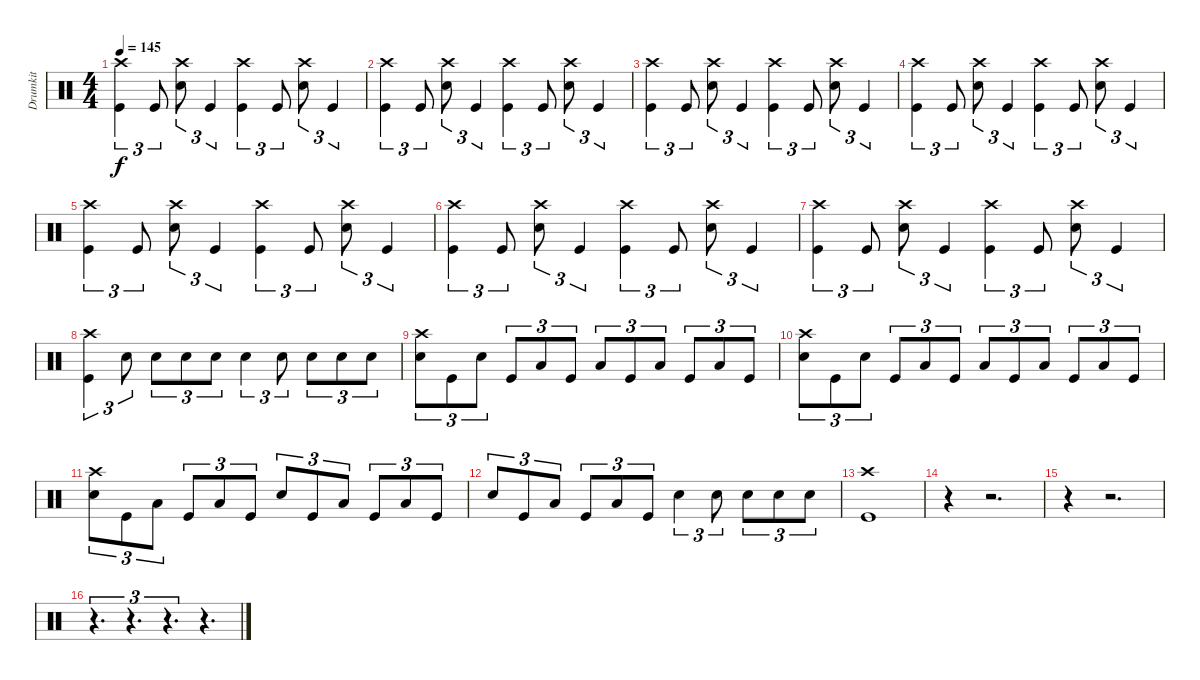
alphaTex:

\track ("Drumkit" "Drumkit") {instrument percussion}
\staff {score}
\articulation defaults
\ts (4 4)
\tempo 145
\clef neutral
\ks c
("Crash high (hit)" "Kick (hit)").4{tu (3 2) dy f} "Kick (hit)".8{tu (3 2)} ("Crash high (hit)" "Snare (hit) 2").8{tu (3 2)} "Kick (hit)".4{tu (3 2)} ("Crash high (hit)" "Kick (hit)").4{tu (3 2)} "Kick (hit)".8{tu (3 2)} ("Crash high (hit)" "Snare (hit) 2").8{tu (3 2)} "Kick (hit)".4{tu (3 2)} |
("Crash high (hit)" "Kick (hit)").4{tu (3 2)} "Kick (hit)".8{tu (3 2)} ("Crash high (hit)" "Snare (hit) 2").8{tu (3 2)} "Kick (hit)".4{tu (3 2)} ("Crash high (hit)" "Kick (hit)").4{tu (3 2)} "Kick (hit)".8{tu (3 2)} ("Crash high (hit)" "Snare (hit) 2").8{tu (3 2)} "Kick (hit)".4{tu (3 2)} |
("Crash high (hit)" "Kick (hit)").4{tu (3 2)} "Kick (hit)".8{tu (3 2)} ("Crash high (hit)" "Snare (hit) 2").8{tu (3 2)} "Kick (hit)".4{tu (3 2)} ("Crash high (hit)" "Kick (hit)").4{tu (3 2)} "Kick (hit)".8{tu (3 2)} ("Crash high (hit)" "Snare (hit) 2").8{tu (3 2)} "Kick (hit)".4{tu (3 2)} |
("Crash high (hit)" "Kick (hit)").4{tu (3 2)} "Kick (hit)".8{tu (3 2)} ("Crash high (hit)" "Snare (hit) 2").8{tu (3 2)} "Kick (hit)".4{tu (3 2)} ("Crash high (hit)" "Kick (hit)").4{tu (3 2)} "Kick (hit)".8{tu (3 2)} ("Crash high (hit)" "Snare (hit) 2").8{tu (3 2)} "Kick (hit)".4{tu (3 2)} |
("Crash high (hit)" "Kick (hit)").4{tu (3 2)} "Kick (hit)".8{tu (3 2)} ("Crash high (hit)" "Snare (hit) 2").8{tu (3 2)} "Kick (hit)".4{tu (3 2)} ("Crash high (hit)" "Kick (hit)").4{tu (3 2)} "Kick (hit)".8{tu (3 2)} ("Crash high (hit)" "Snare (hit) 2").8{tu (3 2)} "Kick (hit)".4{tu (3 2)} |
("Crash high (hit)" "Kick (hit)").4{tu (3 2)} "Kick (hit)".8{tu (3 2)} ("Crash high (hit)" "Snare (hit) 2").8{tu (3 2)} "Kick (hit)".4{tu (3 2)} ("Crash high (hit)" "Kick (hit)").4{tu (3 2)} "Kick (hit)".8{tu (3 2)} ("Crash high (hit)" "Snare (hit) 2").8{tu (3 2)} "Kick (hit)".4{tu (3 2)} |
("Crash high (hit)" "Kick (hit)").4{tu (3 2)} "Kick (hit)".8{tu (3 2)} ("Crash high (hit)" "Snare (hit) 2").8{tu (3 2)} "Kick (hit)".4{tu (3 2)} ("Crash high (hit)" "Kick (hit)").4{tu (3 2)} "Kick (hit)".8{tu (3 2)} ("Crash high (hit)" "Snare (hit) 2").8{tu (3 2)} "Kick (hit)".4{tu (3 2)} |
("Crash high (hit)" "Kick (hit)").4{tu (3 2)} "Snare (hit) 2".8{tu (3 2)} "Snare (hit) 2".8{tu (3 2)} "Snare (hit) 2".8{tu (3 2)} "Snare (hit) 2".8{tu (3 2)} "Snare (hit) 2".4{tu (3 2)} "Snare (hit) 2".8{tu (3 2)} "Snare (hit) 2".8{tu (3 2)} "Snare (hit) 2".8{tu (3 2)} "Snare (hit) 2".8{tu (3 2)} |
("Crash high (hit)" "Snare (hit) 2").8{tu (3 2)} "Kick (hit)".8{tu (3 2)} "Snare (hit) 2".8{tu (3 2)} "Kick (hit)".8{tu (3 2)} "Low Tom (hit)".8{tu (3 2)} "Kick (hit)".8{tu (3 2)} "Low Tom (hit)".8{tu (3 2)} "Kick (hit)".8{tu (3 2)} "Low Tom (hit)".8{tu (3 2)} "Kick (hit)".8{tu (3 2)} "Low Tom (hit)".8{tu (3 2)} "Kick (hit)".8{tu (3 2)} |
("Crash high (hit)" "Snare (hit) 2").8{tu (3 2)} "Kick (hit)".8{tu (3 2)} "Snare (hit) 2".8{tu (3 2)} "Kick (hit)".8{tu (3 2)} "Low Tom (hit)".8{tu (3 2)} "Kick (hit)".8{tu (3 2)} "Low Tom (hit)".8{tu (3 2)} "Kick (hit)".8{tu (3 2)} "Low Tom (hit)".8{tu (3 2)} "Kick (hit)".8{tu (3 2)} "Low Tom (hit)".8{tu (3 2)} "Kick (hit)".8{tu (3 2)} |
("Crash high (hit)" "Snare (hit) 2").8{tu (3 2)} "Kick (hit)".8{tu (3 2)} "Low Tom (hit)".8{tu (3 2)} "Kick (hit)".8{tu (3 2)} "Low Tom (hit)".8{tu (3 2)} "Kick (hit)".8{tu (3 2)} "Snare (hit) 2".8{tu (3 2)} "Kick (hit)".8{tu (3 2)} "Low Tom (hit)".8{tu (3 2)} "Kick (hit)".8{tu (3 2)} "Low Tom (hit)".8{tu (3 2)} "Kick (hit)".8{tu (3 2)} |
"Snare (hit) 2".8{tu (3 2)} "Kick (hit)".8{tu (3 2)} "Low Tom (hit)".8{tu (3 2)} "Kick (hit)".8{tu (3 2)} "Low Tom (hit)".8{tu (3 2)} "Kick (hit)".8{tu (3 2)} "Snare (hit) 2".4{tu (3 2)} "Snare (hit) 2".8{tu (3 2)} "Snare (hit) 2".8{tu (3 2)} "Snare (hit) 2".8{tu (3 2)} "Snare (hit) 2".8{tu (3 2)} |
("Crash high (hit)" "Kick (hit)").1 |
r.4 r.2{d} |
r.4 r.2{d} |
r.4{d tu (3 2)} r.4{d tu (3 2)} r.4{d tu (3 2)} r.4{d tu (3 2)}
